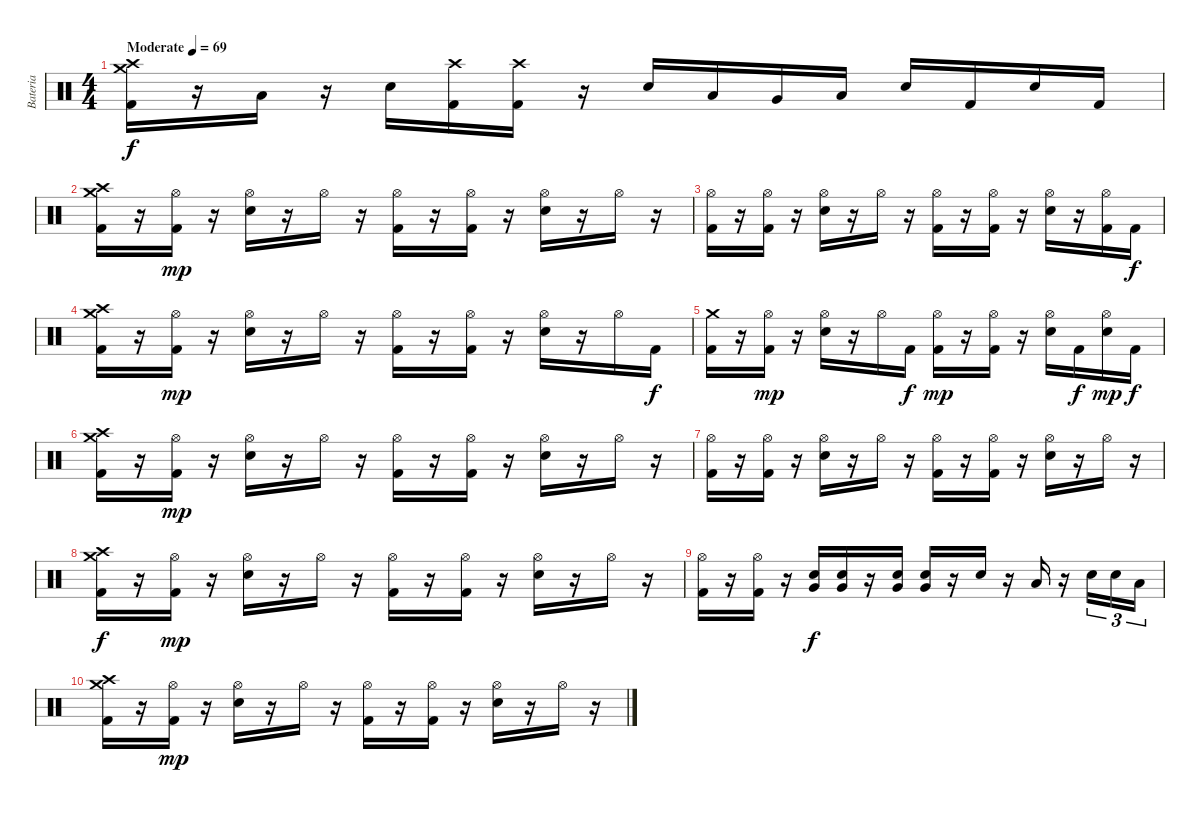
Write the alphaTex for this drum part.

\track ("Bateria" "Bateria") {instrument percussion}
\staff {score}
\articulation defaults
\ts (4 4)
\tempo (69 "Moderate")
\clef neutral
\ks c
("Kick (hit) 2" "Crash high (hit)" "Crash medium (hit)").16{dy f} r.16 "Low Tom (hit)".16 r.16 "Snare (hit) 2".16 ("Crash high (hit)" "Kick (hit) 2").16 ("Crash high (hit)" "Kick (hit) 2").16 r.16 "Snare (hit) 2".16 "Low Tom (hit)".16 "Very Low Tom (hit)".16 "Low Floor Tom (hit)".16 "Snare (hit) 2".16 "Kick (hit) 2".16 "Snare (hit) 2".16 "Kick (hit) 2".16 |
("Kick (hit) 2" "Crash high (hit)" "Crash medium (hit)").16 r.16 ("Kick (hit) 2" "Hi-Hat (open)").16{dy mp} r.16 ("Snare (hit) 2" "Hi-Hat (open)").16 r.16 "Hi-Hat (open)".16 r.16 ("Kick (hit) 2" "Hi-Hat (open)").16 r.16 ("Kick (hit) 2" "Hi-Hat (open)").16 r.16 ("Snare (hit) 2" "Hi-Hat (open)").16 r.16 "Hi-Hat (open)".16 r.16 |
("Kick (hit) 2" "Hi-Hat (open)").16 r.16 ("Kick (hit) 2" "Hi-Hat (open)").16 r.16 ("Snare (hit) 2" "Hi-Hat (open)").16 r.16 "Hi-Hat (open)".16 r.16 ("Kick (hit) 2" "Hi-Hat (open)").16 r.16 ("Kick (hit) 2" "Hi-Hat (open)").16 r.16 ("Snare (hit) 2" "Hi-Hat (open)").16 r.16 ("Kick (hit) 2" "Hi-Hat (open)").16 "Kick (hit) 2".16{dy f} |
("Kick (hit) 2" "Crash high (hit)" "Crash medium (hit)").16 r.16 ("Kick (hit) 2" "Hi-Hat (open)").16{dy mp} r.16 ("Snare (hit) 2" "Hi-Hat (open)").16 r.16 "Hi-Hat (open)".16 r.16 ("Kick (hit) 2" "Hi-Hat (open)").16 r.16 ("Kick (hit) 2" "Hi-Hat (open)").16 r.16 ("Snare (hit) 2" "Hi-Hat (open)").16 r.16 "Hi-Hat (open)".16 "Kick (hit) 2".16{dy f} |
("Kick (hit) 2" "Crash medium (hit)").16 r.16 ("Kick (hit) 2" "Hi-Hat (open)").16{dy mp} r.16 ("Snare (hit) 2" "Hi-Hat (open)").16 r.16 "Hi-Hat (open)".16 "Kick (hit) 2".16{dy f} ("Kick (hit) 2" "Hi-Hat (open)").16{dy mp} r.16 ("Kick (hit) 2" "Hi-Hat (open)").16 r.16 ("Snare (hit) 2" "Hi-Hat (open)").16 "Kick (hit) 2".16{dy f} ("Snare (hit) 2" "Hi-Hat (open)").16{dy mp} "Kick (hit) 2".16{dy f} |
("Kick (hit) 2" "Crash high (hit)" "Crash medium (hit)").16 r.16 ("Kick (hit) 2" "Hi-Hat (open)").16{dy mp} r.16 ("Snare (hit) 2" "Hi-Hat (open)").16 r.16 "Hi-Hat (open)".16 r.16 ("Kick (hit) 2" "Hi-Hat (open)").16 r.16 ("Kick (hit) 2" "Hi-Hat (open)").16 r.16 ("Snare (hit) 2" "Hi-Hat (open)").16 r.16 "Hi-Hat (open)".16 r.16 |
("Kick (hit) 2" "Hi-Hat (open)").16 r.16 ("Kick (hit) 2" "Hi-Hat (open)").16 r.16 ("Snare (hit) 2" "Hi-Hat (open)").16 r.16 "Hi-Hat (open)".16 r.16 ("Kick (hit) 2" "Hi-Hat (open)").16 r.16 ("Kick (hit) 2" "Hi-Hat (open)").16 r.16 ("Snare (hit) 2" "Hi-Hat (open)").16 r.16 "Hi-Hat (open)".16 r.16 |
("Kick (hit) 2" "Crash high (hit)" "Crash medium (hit)").16{dy f} r.16 ("Kick (hit) 2" "Hi-Hat (open)").16{dy mp} r.16 ("Snare (hit) 2" "Hi-Hat (open)").16 r.16 "Hi-Hat (open)".16 r.16 ("Kick (hit) 2" "Hi-Hat (open)").16 r.16 ("Kick (hit) 2" "Hi-Hat (open)").16 r.16 ("Snare (hit) 2" "Hi-Hat (open)").16 r.16 "Hi-Hat (open)".16 r.16 |
("Kick (hit) 2" "Hi-Hat (open)").16 r.16 ("Kick (hit) 2" "Hi-Hat (open)").16 r.16 ("Snare (hit) 2" "Very Low Tom (hit)").16{dy f} ("Snare (hit) 2" "Very Low Tom (hit)").16 r.16 ("Snare (hit) 2" "Very Low Tom (hit)").16 ("Snare (hit) 2" "Very Low Tom (hit)").16 r.16 "Snare (hit) 2".16 r.16 "Low Tom (hit)".16 r.16 "Snare (hit) 2".16{tu (3 2)} "Snare (hit) 2".16{tu (3 2)} "Low Tom (hit)".16{tu (3 2)} |
("Kick (hit) 2" "Crash high (hit)" "Crash medium (hit)").16 r.16 ("Kick (hit) 2" "Hi-Hat (open)").16{dy mp} r.16 ("Snare (hit) 2" "Hi-Hat (open)").16 r.16 "Hi-Hat (open)".16 r.16 ("Kick (hit) 2" "Hi-Hat (open)").16 r.16 ("Kick (hit) 2" "Hi-Hat (open)").16 r.16 ("Snare (hit) 2" "Hi-Hat (open)").16 r.16 "Hi-Hat (open)".16 r.16
